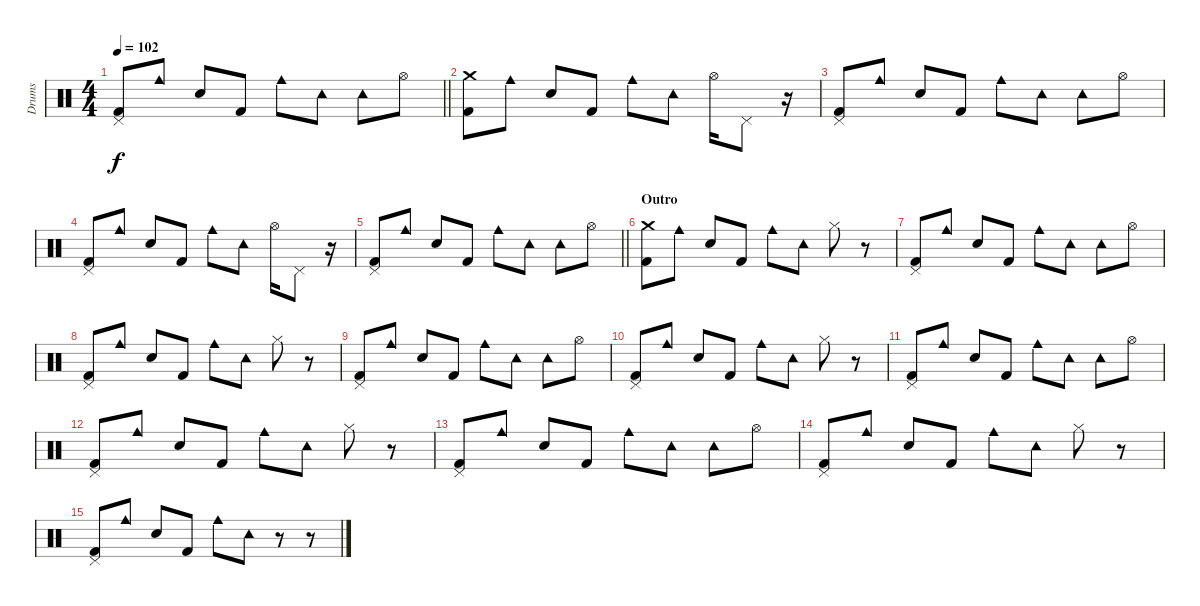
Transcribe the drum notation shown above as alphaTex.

\track ("Drums" "Drums") {instrument percussion}
\staff {score}
\articulation defaults
\ts (4 4)
\tempo 102
\clef neutral
\barLineRight lightlight
\ks c
("Pedal Hi-Hat (hit)" "Kick (hit) 2").8{dy f} "Cowbell medium (hit)".8 "Electric Snare (hit)".8 "Kick (hit) 2".8 "Cowbell medium (hit)".8 "Tambourine (hit)".8 "Tambourine (hit)".8 "Hi-Hat (open)".8 |
("Crash medium (hit)" "Kick (hit) 2").8 "Cowbell medium (hit)".8 "Electric Snare (hit)".8 "Kick (hit) 2".8 "Cowbell medium (hit)".8 "Tambourine (hit)".8 "Hi-Hat (open)".16 "Pedal Hi-Hat (hit)".8 r.16 |
("Pedal Hi-Hat (hit)" "Kick (hit) 2").8 "Cowbell medium (hit)".8 "Electric Snare (hit)".8 "Kick (hit) 2".8 "Cowbell medium (hit)".8 "Tambourine (hit)".8 "Tambourine (hit)".8 "Hi-Hat (open)".8 |
("Pedal Hi-Hat (hit)" "Kick (hit) 2").8 "Cowbell medium (hit)".8 "Electric Snare (hit)".8 "Kick (hit) 2".8 "Cowbell medium (hit)".8 "Tambourine (hit)".8 "Hi-Hat (open)".16 "Pedal Hi-Hat (hit)".8 r.16 |
\barLineRight lightlight
("Pedal Hi-Hat (hit)" "Kick (hit) 2").8 "Cowbell medium (hit)".8 "Electric Snare (hit)".8 "Kick (hit) 2".8 "Cowbell medium (hit)".8 "Tambourine (hit)".8 "Tambourine (hit)".8 "Hi-Hat (open)".8 |
\section ("" "Outro")
("Crash medium (hit)" "Kick (hit) 2").8 "Cowbell medium (hit)".8 "Electric Snare (hit)".8 "Kick (hit) 2".8 "Cowbell medium (hit)".8 "Tambourine (hit)".8 "Hi-Hat (closed)".8 r.8 |
("Pedal Hi-Hat (hit)" "Kick (hit) 2").8 "Cowbell medium (hit)".8 "Electric Snare (hit)".8 "Kick (hit) 2".8 "Cowbell medium (hit)".8 "Tambourine (hit)".8 "Tambourine (hit)".8 "Hi-Hat (open)".8 |
("Pedal Hi-Hat (hit)" "Kick (hit) 2").8 "Cowbell medium (hit)".8 "Electric Snare (hit)".8 "Kick (hit) 2".8 "Cowbell medium (hit)".8 "Tambourine (hit)".8 "Hi-Hat (closed)".8 r.8 |
("Pedal Hi-Hat (hit)" "Kick (hit) 2").8 "Cowbell medium (hit)".8 "Electric Snare (hit)".8 "Kick (hit) 2".8 "Cowbell medium (hit)".8 "Tambourine (hit)".8 "Tambourine (hit)".8 "Hi-Hat (open)".8 |
("Pedal Hi-Hat (hit)" "Kick (hit) 2").8 "Cowbell medium (hit)".8 "Electric Snare (hit)".8 "Kick (hit) 2".8 "Cowbell medium (hit)".8 "Tambourine (hit)".8 "Hi-Hat (closed)".8 r.8 |
("Pedal Hi-Hat (hit)" "Kick (hit) 2").8 "Cowbell medium (hit)".8 "Electric Snare (hit)".8 "Kick (hit) 2".8 "Cowbell medium (hit)".8 "Tambourine (hit)".8 "Tambourine (hit)".8 "Hi-Hat (open)".8 |
("Pedal Hi-Hat (hit)" "Kick (hit) 2").8 "Cowbell medium (hit)".8 "Electric Snare (hit)".8 "Kick (hit) 2".8 "Cowbell medium (hit)".8 "Tambourine (hit)".8 "Hi-Hat (closed)".8 r.8 |
("Pedal Hi-Hat (hit)" "Kick (hit) 2").8 "Cowbell medium (hit)".8 "Electric Snare (hit)".8 "Kick (hit) 2".8 "Cowbell medium (hit)".8 "Tambourine (hit)".8 "Tambourine (hit)".8 "Hi-Hat (open)".8 |
("Pedal Hi-Hat (hit)" "Kick (hit) 2").8 "Cowbell medium (hit)".8 "Electric Snare (hit)".8 "Kick (hit) 2".8 "Cowbell medium (hit)".8 "Tambourine (hit)".8 "Hi-Hat (closed)".8 r.8 |
("Pedal Hi-Hat (hit)" "Kick (hit) 2").8 "Cowbell medium (hit)".8 "Electric Snare (hit)".8 "Kick (hit) 2".8 "Cowbell medium (hit)".8 "Tambourine (hit)".8 r.8 r.8
